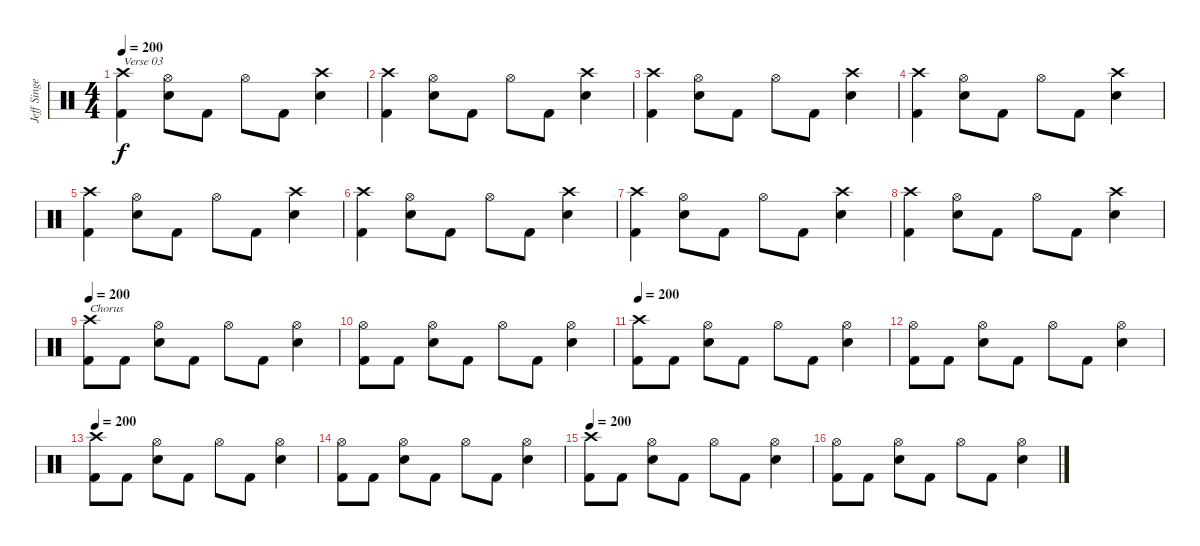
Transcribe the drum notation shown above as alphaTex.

\track ("Jeff Singer" "Jeff Singe") {instrument percussion}
\staff {score}
\articulation defaults
\ts (4 4)
\tempo 200
\clef neutral
\ks c
("Crash high (hit)" "Kick (hit) 2").4{txt "Verse 03" dy f} ("Hi-Hat (open)" "Snare (hit) 2").8 "Kick (hit) 2".8 "Hi-Hat (open)".8 "Kick (hit) 2".8 ("Crash high (hit)" "Snare (hit) 2").4 |
("Crash high (hit)" "Kick (hit) 2").4 ("Hi-Hat (open)" "Snare (hit) 2").8 "Kick (hit) 2".8 "Hi-Hat (open)".8 "Kick (hit) 2".8 ("Crash high (hit)" "Snare (hit) 2").4 |
("Crash high (hit)" "Kick (hit) 2").4 ("Hi-Hat (open)" "Snare (hit) 2").8 "Kick (hit) 2".8 "Hi-Hat (open)".8 "Kick (hit) 2".8 ("Crash high (hit)" "Snare (hit) 2").4 |
("Crash high (hit)" "Kick (hit) 2").4 ("Hi-Hat (open)" "Snare (hit) 2").8 "Kick (hit) 2".8 "Hi-Hat (open)".8 "Kick (hit) 2".8 ("Crash high (hit)" "Snare (hit) 2").4 |
("Crash high (hit)" "Kick (hit) 2").4 ("Hi-Hat (open)" "Snare (hit) 2").8 "Kick (hit) 2".8 "Hi-Hat (open)".8 "Kick (hit) 2".8 ("Crash high (hit)" "Snare (hit) 2").4 |
("Crash high (hit)" "Kick (hit) 2").4 ("Hi-Hat (open)" "Snare (hit) 2").8 "Kick (hit) 2".8 "Hi-Hat (open)".8 "Kick (hit) 2".8 ("Crash high (hit)" "Snare (hit) 2").4 |
("Crash high (hit)" "Kick (hit) 2").4 ("Hi-Hat (open)" "Snare (hit) 2").8 "Kick (hit) 2".8 "Hi-Hat (open)".8 "Kick (hit) 2".8 ("Crash high (hit)" "Snare (hit) 2").4 |
("Crash high (hit)" "Kick (hit) 2").4 ("Hi-Hat (open)" "Snare (hit) 2").8 "Kick (hit) 2".8 "Hi-Hat (open)".8 "Kick (hit) 2".8 ("Crash high (hit)" "Snare (hit) 2").4 |
\tempo 200
("Crash high (hit)" "Kick (hit) 2").8{txt "Chorus"} "Kick (hit) 2".8 ("Hi-Hat (open)" "Snare (hit) 2").8 "Kick (hit) 2".8 "Hi-Hat (open)".8 "Kick (hit) 2".8 ("Hi-Hat (open)" "Snare (hit) 2").4 |
("Hi-Hat (open)" "Kick (hit) 2").8 "Kick (hit) 2".8 ("Hi-Hat (open)" "Snare (hit) 2").8 "Kick (hit) 2".8 "Hi-Hat (open)".8 "Kick (hit) 2".8 ("Hi-Hat (open)" "Snare (hit) 2").4 |
\tempo 200
("Crash high (hit)" "Kick (hit) 2").8 "Kick (hit) 2".8 ("Hi-Hat (open)" "Snare (hit) 2").8 "Kick (hit) 2".8 "Hi-Hat (open)".8 "Kick (hit) 2".8 ("Hi-Hat (open)" "Snare (hit) 2").4 |
("Hi-Hat (open)" "Kick (hit) 2").8 "Kick (hit) 2".8 ("Hi-Hat (open)" "Snare (hit) 2").8 "Kick (hit) 2".8 "Hi-Hat (open)".8 "Kick (hit) 2".8 ("Hi-Hat (open)" "Snare (hit) 2").4 |
\tempo 200
("Crash high (hit)" "Kick (hit) 2").8 "Kick (hit) 2".8 ("Hi-Hat (open)" "Snare (hit) 2").8 "Kick (hit) 2".8 "Hi-Hat (open)".8 "Kick (hit) 2".8 ("Hi-Hat (open)" "Snare (hit) 2").4 |
("Hi-Hat (open)" "Kick (hit) 2").8 "Kick (hit) 2".8 ("Hi-Hat (open)" "Snare (hit) 2").8 "Kick (hit) 2".8 "Hi-Hat (open)".8 "Kick (hit) 2".8 ("Hi-Hat (open)" "Snare (hit) 2").4 |
\tempo 200
("Crash high (hit)" "Kick (hit) 2").8 "Kick (hit) 2".8 ("Hi-Hat (open)" "Snare (hit) 2").8 "Kick (hit) 2".8 "Hi-Hat (open)".8 "Kick (hit) 2".8 ("Hi-Hat (open)" "Snare (hit) 2").4 |
("Hi-Hat (open)" "Kick (hit) 2").8 "Kick (hit) 2".8 ("Hi-Hat (open)" "Snare (hit) 2").8 "Kick (hit) 2".8 "Hi-Hat (open)".8 "Kick (hit) 2".8 ("Hi-Hat (open)" "Snare (hit) 2").4
